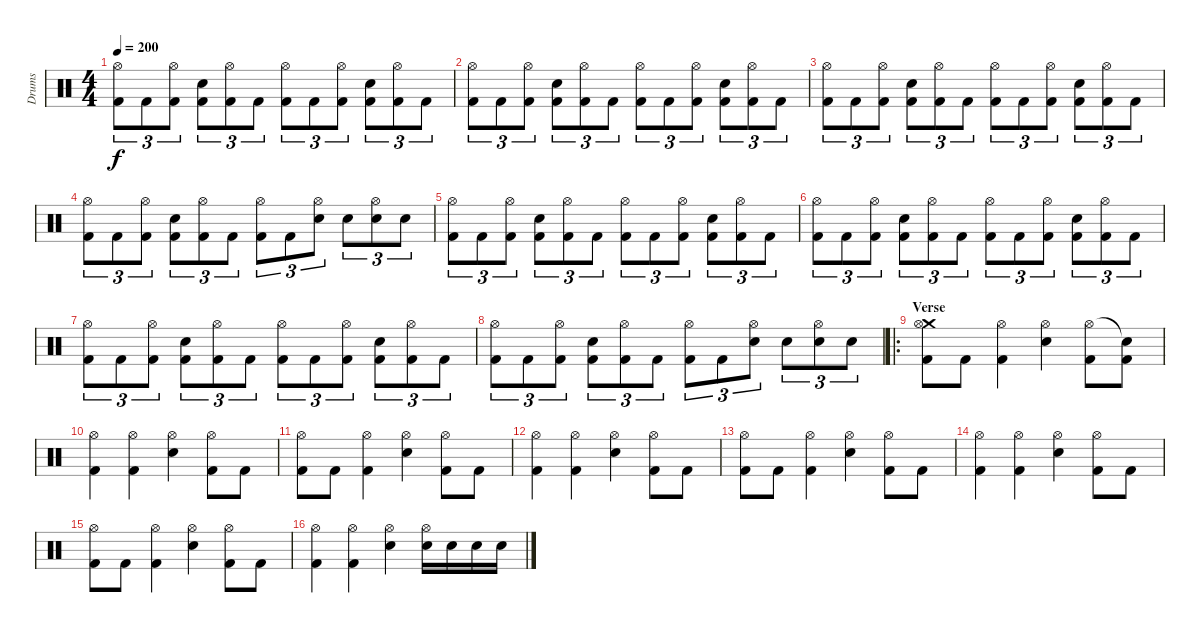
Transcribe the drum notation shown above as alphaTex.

\track ("Drums" "Drums") {instrument percussion}
\staff {score}
\articulation defaults
\ts (4 4)
\tempo 200
\clef neutral
\ks c
("Hi-Hat (open)" "Kick (hit) 2").8{tu (3 2) dy f} "Kick (hit) 2".8{tu (3 2)} ("Hi-Hat (open)" "Kick (hit) 2").8{tu (3 2)} ("Snare (hit) 2" "Kick (hit) 2").8{tu (3 2)} ("Hi-Hat (open)" "Kick (hit) 2").8{tu (3 2)} "Kick (hit) 2".8{tu (3 2)} ("Hi-Hat (open)" "Kick (hit) 2").8{tu (3 2)} "Kick (hit) 2".8{tu (3 2)} ("Hi-Hat (open)" "Kick (hit) 2").8{tu (3 2)} ("Snare (hit) 2" "Kick (hit) 2").8{tu (3 2)} ("Hi-Hat (open)" "Kick (hit) 2").8{tu (3 2)} "Kick (hit) 2".8{tu (3 2)} |
("Hi-Hat (open)" "Kick (hit) 2").8{tu (3 2)} "Kick (hit) 2".8{tu (3 2)} ("Hi-Hat (open)" "Kick (hit) 2").8{tu (3 2)} ("Snare (hit) 2" "Kick (hit) 2").8{tu (3 2)} ("Hi-Hat (open)" "Kick (hit) 2").8{tu (3 2)} "Kick (hit) 2".8{tu (3 2)} ("Hi-Hat (open)" "Kick (hit) 2").8{tu (3 2)} "Kick (hit) 2".8{tu (3 2)} ("Hi-Hat (open)" "Kick (hit) 2").8{tu (3 2)} ("Snare (hit) 2" "Kick (hit) 2").8{tu (3 2)} ("Hi-Hat (open)" "Kick (hit) 2").8{tu (3 2)} "Kick (hit) 2".8{tu (3 2)} |
("Hi-Hat (open)" "Kick (hit) 2").8{tu (3 2)} "Kick (hit) 2".8{tu (3 2)} ("Hi-Hat (open)" "Kick (hit) 2").8{tu (3 2)} ("Snare (hit) 2" "Kick (hit) 2").8{tu (3 2)} ("Hi-Hat (open)" "Kick (hit) 2").8{tu (3 2)} "Kick (hit) 2".8{tu (3 2)} ("Hi-Hat (open)" "Kick (hit) 2").8{tu (3 2)} "Kick (hit) 2".8{tu (3 2)} ("Hi-Hat (open)" "Kick (hit) 2").8{tu (3 2)} ("Snare (hit) 2" "Kick (hit) 2").8{tu (3 2)} ("Hi-Hat (open)" "Kick (hit) 2").8{tu (3 2)} "Kick (hit) 2".8{tu (3 2)} |
("Hi-Hat (open)" "Kick (hit) 2").8{tu (3 2)} "Kick (hit) 2".8{tu (3 2)} ("Hi-Hat (open)" "Kick (hit) 2").8{tu (3 2)} ("Snare (hit) 2" "Kick (hit) 2").8{tu (3 2)} ("Hi-Hat (open)" "Kick (hit) 2").8{tu (3 2)} "Kick (hit) 2".8{tu (3 2)} ("Hi-Hat (open)" "Kick (hit) 2").8{tu (3 2)} "Kick (hit) 2".8{tu (3 2)} ("Hi-Hat (open)" "Snare (hit) 2").8{tu (3 2)} "Snare (hit) 2".8{tu (3 2)} ("Hi-Hat (open)" "Snare (hit) 2").8{tu (3 2)} "Snare (hit) 2".8{tu (3 2)} |
("Hi-Hat (open)" "Kick (hit) 2").8{tu (3 2)} "Kick (hit) 2".8{tu (3 2)} ("Hi-Hat (open)" "Kick (hit) 2").8{tu (3 2)} ("Snare (hit) 2" "Kick (hit) 2").8{tu (3 2)} ("Hi-Hat (open)" "Kick (hit) 2").8{tu (3 2)} "Kick (hit) 2".8{tu (3 2)} ("Hi-Hat (open)" "Kick (hit) 2").8{tu (3 2)} "Kick (hit) 2".8{tu (3 2)} ("Hi-Hat (open)" "Kick (hit) 2").8{tu (3 2)} ("Snare (hit) 2" "Kick (hit) 2").8{tu (3 2)} ("Hi-Hat (open)" "Kick (hit) 2").8{tu (3 2)} "Kick (hit) 2".8{tu (3 2)} |
("Hi-Hat (open)" "Kick (hit) 2").8{tu (3 2)} "Kick (hit) 2".8{tu (3 2)} ("Hi-Hat (open)" "Kick (hit) 2").8{tu (3 2)} ("Snare (hit) 2" "Kick (hit) 2").8{tu (3 2)} ("Hi-Hat (open)" "Kick (hit) 2").8{tu (3 2)} "Kick (hit) 2".8{tu (3 2)} ("Hi-Hat (open)" "Kick (hit) 2").8{tu (3 2)} "Kick (hit) 2".8{tu (3 2)} ("Hi-Hat (open)" "Kick (hit) 2").8{tu (3 2)} ("Snare (hit) 2" "Kick (hit) 2").8{tu (3 2)} ("Hi-Hat (open)" "Kick (hit) 2").8{tu (3 2)} "Kick (hit) 2".8{tu (3 2)} |
("Hi-Hat (open)" "Kick (hit) 2").8{tu (3 2)} "Kick (hit) 2".8{tu (3 2)} ("Hi-Hat (open)" "Kick (hit) 2").8{tu (3 2)} ("Snare (hit) 2" "Kick (hit) 2").8{tu (3 2)} ("Hi-Hat (open)" "Kick (hit) 2").8{tu (3 2)} "Kick (hit) 2".8{tu (3 2)} ("Hi-Hat (open)" "Kick (hit) 2").8{tu (3 2)} "Kick (hit) 2".8{tu (3 2)} ("Hi-Hat (open)" "Kick (hit) 2").8{tu (3 2)} ("Snare (hit) 2" "Kick (hit) 2").8{tu (3 2)} ("Hi-Hat (open)" "Kick (hit) 2").8{tu (3 2)} "Kick (hit) 2".8{tu (3 2)} |
("Hi-Hat (open)" "Kick (hit) 2").8{tu (3 2)} "Kick (hit) 2".8{tu (3 2)} ("Hi-Hat (open)" "Kick (hit) 2").8{tu (3 2)} ("Snare (hit) 2" "Kick (hit) 2").8{tu (3 2)} ("Hi-Hat (open)" "Kick (hit) 2").8{tu (3 2)} "Kick (hit) 2".8{tu (3 2)} ("Hi-Hat (open)" "Kick (hit) 2").8{tu (3 2)} "Kick (hit) 2".8{tu (3 2)} ("Hi-Hat (open)" "Snare (hit) 2").8{tu (3 2)} "Snare (hit) 2".8{tu (3 2)} ("Hi-Hat (open)" "Snare (hit) 2").8{tu (3 2)} "Snare (hit) 2".8{tu (3 2)} |
\ro
\section ("" "Verse")
("Crash medium (hit)" "Hi-Hat (open)" "Kick (hit) 2").8 "Kick (hit) 2".8 ("Hi-Hat (open)" "Kick (hit) 2").4 ("Hi-Hat (open)" "Snare (hit) 2").4 ("Hi-Hat (open)" "Kick (hit) 2").8 ("Snare (hit)"{t} "Kick (hit) 2").8 |
("Hi-Hat (open)" "Kick (hit) 2").4 ("Hi-Hat (open)" "Kick (hit) 2").4 ("Hi-Hat (open)" "Snare (hit) 2").4 ("Hi-Hat (open)" "Kick (hit) 2").8 "Kick (hit) 2".8 |
("Hi-Hat (open)" "Kick (hit) 2").8 "Kick (hit) 2".8 ("Hi-Hat (open)" "Kick (hit) 2").4 ("Hi-Hat (open)" "Snare (hit) 2").4 ("Hi-Hat (open)" "Kick (hit) 2").8 "Kick (hit) 2".8 |
("Hi-Hat (open)" "Kick (hit) 2").4 ("Hi-Hat (open)" "Kick (hit) 2").4 ("Hi-Hat (open)" "Snare (hit) 2").4 ("Hi-Hat (open)" "Kick (hit) 2").8 "Kick (hit) 2".8 |
("Hi-Hat (open)" "Kick (hit) 2").8 "Kick (hit) 2".8 ("Hi-Hat (open)" "Kick (hit) 2").4 ("Hi-Hat (open)" "Snare (hit) 2").4 ("Hi-Hat (open)" "Kick (hit) 2").8 "Kick (hit) 2".8 |
("Hi-Hat (open)" "Kick (hit) 2").4 ("Hi-Hat (open)" "Kick (hit) 2").4 ("Hi-Hat (open)" "Snare (hit) 2").4 ("Hi-Hat (open)" "Kick (hit) 2").8 "Kick (hit) 2".8 |
("Hi-Hat (open)" "Kick (hit) 2").8 "Kick (hit) 2".8 ("Hi-Hat (open)" "Kick (hit) 2").4 ("Hi-Hat (open)" "Snare (hit) 2").4 ("Hi-Hat (open)" "Kick (hit) 2").8 "Kick (hit) 2".8 |
("Hi-Hat (open)" "Kick (hit) 2").4 ("Hi-Hat (open)" "Kick (hit) 2").4 ("Hi-Hat (open)" "Snare (hit) 2").4 ("Hi-Hat (open)" "Snare (hit) 2").16 "Snare (hit) 2".16 "Snare (hit) 2".16 "Snare (hit) 2".16
